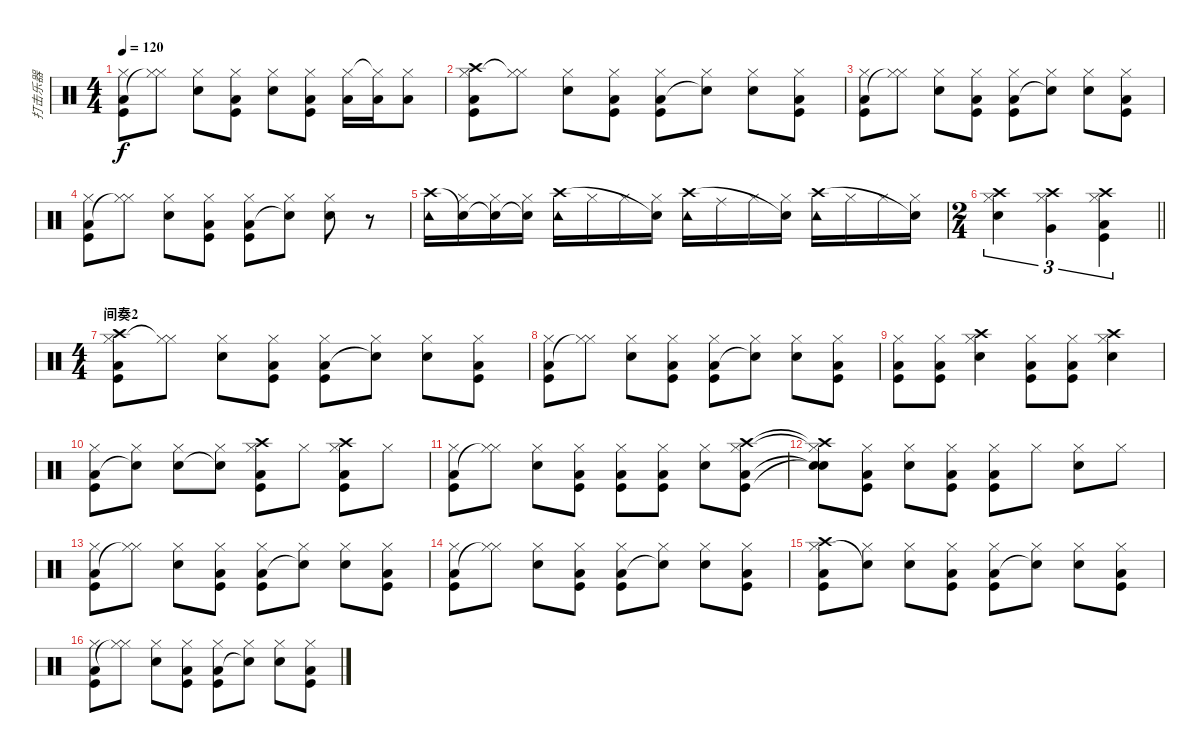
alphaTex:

\track ("打击乐器" "打击乐器") {instrument percussion}
\staff {score}
\articulation defaults
\ts (4 4)
\tempo 120
\clef neutral
\ks c
("Hi-Hat (closed)" "Low Floor Tom (hit)" "Kick (hit)").8{dy f} ("Hi-Hat (closed)" "Hi-Hat (closed)"{t}).8 ("Hi-Hat (closed)" "Electric Snare (hit)").8 ("Hi-Hat (closed)" "Low Floor Tom (hit)" "Kick (hit)").8 ("Hi-Hat (closed)" "Electric Snare (hit)").8 ("Hi-Hat (closed)" "Low Floor Tom (hit)" "Kick (hit)").8 ("Hi-Hat (closed)" "Low Tom (hit)").16 ("Hi-Hat (closed)"{t} "Low Tom (hit)").16 ("Hi-Hat (closed)" "Low Tom (hit)").8 |
("Crash high (hit)" "Hi-Hat (closed)" "Low Floor Tom (hit)" "Kick (hit)").8 ("Hi-Hat (closed)" "Hi-Hat (closed)"{t}).8 ("Hi-Hat (closed)" "Electric Snare (hit)").8 ("Hi-Hat (closed)" "Low Floor Tom (hit)" "Kick (hit)").8 ("Hi-Hat (closed)" "Low Floor Tom (hit)" "Kick (hit)").8 ("Hi-Hat (closed)" "Snare (hit)"{t}).8 ("Hi-Hat (closed)" "Electric Snare (hit)").8 ("Hi-Hat (closed)" "Low Floor Tom (hit)" "Kick (hit)").8 |
("Hi-Hat (closed)" "Low Floor Tom (hit)" "Kick (hit)").8 ("Hi-Hat (closed)" "Hi-Hat (closed)"{t}).8 ("Hi-Hat (closed)" "Electric Snare (hit)").8 ("Hi-Hat (closed)" "Low Floor Tom (hit)" "Kick (hit)").8 ("Hi-Hat (closed)" "Low Floor Tom (hit)" "Kick (hit)").8 ("Hi-Hat (closed)" "Snare (hit)"{t}).8 ("Hi-Hat (closed)" "Electric Snare (hit)").8 ("Hi-Hat (closed)" "Low Floor Tom (hit)" "Kick (hit)").8 |
("Hi-Hat (closed)" "Low Floor Tom (hit)" "Kick (hit)").8 ("Hi-Hat (closed)" "Hi-Hat (closed)"{t}).8 ("Hi-Hat (closed)" "Electric Snare (hit)").8 ("Hi-Hat (closed)" "Low Floor Tom (hit)" "Kick (hit)").8 ("Hi-Hat (closed)" "Low Floor Tom (hit)" "Kick (hit)").8 ("Hi-Hat (closed)" "Snare (hit)"{t}).8 ("Hi-Hat (closed)" "Electric Snare (hit)").8 r.8 |
("Tambourine (hit)" "Crash high (hit)").16 ("Hi-Hat (closed)" "Snare (hit)"{t}).16 ("Hi-Hat (closed)" "Snare (hit)"{t}).16 ("Hi-Hat (closed)" "Snare (hit)"{t}).16 ("Tambourine (hit)" "Crash high (hit)").16 "Hi-Hat (closed)".16 "Hi-Hat (closed)".16 ("Hi-Hat (closed)" "Snare (hit)"{t}).16 ("Tambourine (hit)" "Crash high (hit)").16 "Ride (middle)".16 "Hi-Hat (closed)".16 ("Hi-Hat (closed)" "Snare (hit)"{t}).16 ("Tambourine (hit)" "Crash high (hit)").16 "Hi-Hat (closed)".16 "Hi-Hat (closed)".16 ("Hi-Hat (closed)" "Snare (hit)"{t}).16 |
\ts (2 4)
\barLineRight lightlight
("Crash high (hit)" "Hi-Hat (closed)" "Electric Snare (hit)").4{tu (3 2)} ("Crash high (hit)" "Hi-Hat (closed)" "Very Low Tom (hit)").4{tu (3 2)} ("Crash high (hit)" "Hi-Hat (closed)" "Low Floor Tom (hit)" "Kick (hit)").4{tu (3 2)} |
\ts (4 4)
\section ("" "间奏2")
("Crash high (hit)" "Hi-Hat (closed)" "Low Floor Tom (hit)" "Kick (hit)").8 ("Hi-Hat (closed)" "Hi-Hat (closed)"{t}).8 ("Hi-Hat (closed)" "Electric Snare (hit)").8 ("Hi-Hat (closed)" "Low Floor Tom (hit)" "Kick (hit)").8 ("Hi-Hat (closed)" "Low Floor Tom (hit)" "Kick (hit)").8 ("Hi-Hat (closed)" "Snare (hit)"{t}).8 ("Hi-Hat (closed)" "Electric Snare (hit)").8 ("Hi-Hat (closed)" "Low Floor Tom (hit)" "Kick (hit)").8 |
("Hi-Hat (closed)" "Low Floor Tom (hit)" "Kick (hit)").8 ("Hi-Hat (closed)" "Hi-Hat (closed)"{t}).8 ("Hi-Hat (closed)" "Electric Snare (hit)").8 ("Hi-Hat (closed)" "Low Floor Tom (hit)" "Kick (hit)").8 ("Hi-Hat (closed)" "Low Floor Tom (hit)" "Kick (hit)").8 ("Hi-Hat (closed)" "Snare (hit)"{t}).8 ("Hi-Hat (closed)" "Electric Snare (hit)").8 ("Hi-Hat (closed)" "Low Floor Tom (hit)" "Kick (hit)").8 |
("Hi-Hat (closed)" "Low Floor Tom (hit)" "Kick (hit)").8 ("Hi-Hat (closed)" "Low Floor Tom (hit)" "Kick (hit)").8 ("Crash high (hit)" "Hi-Hat (closed)" "Electric Snare (hit)").4 ("Hi-Hat (closed)" "Low Floor Tom (hit)" "Kick (hit)").8 ("Hi-Hat (closed)" "Low Floor Tom (hit)" "Kick (hit)").8 ("Crash high (hit)" "Hi-Hat (closed)" "Electric Snare (hit)").4 |
("Hi-Hat (closed)" "Low Floor Tom (hit)" "Kick (hit)").8 ("Hi-Hat (closed)" "Snare (hit)"{t}).8 ("Hi-Hat (closed)" "Electric Snare (hit)").8 ("Hi-Hat (closed)" "Snare (hit)"{t}).8 ("Crash high (hit)" "Hi-Hat (closed)" "Low Floor Tom (hit)" "Kick (hit)").8 "Hi-Hat (closed)".8 ("Crash high (hit)" "Hi-Hat (closed)" "Low Floor Tom (hit)" "Kick (hit)").8 "Hi-Hat (closed)".8 |
("Hi-Hat (closed)" "Low Floor Tom (hit)" "Kick (hit)").8 ("Hi-Hat (closed)" "Hi-Hat (closed)"{t}).8 ("Hi-Hat (closed)" "Electric Snare (hit)").8 ("Hi-Hat (closed)" "Low Floor Tom (hit)" "Kick (hit)").8 ("Hi-Hat (closed)" "Low Floor Tom (hit)" "Kick (hit)").8 ("Hi-Hat (closed)" "Low Floor Tom (hit)" "Kick (hit)").8 ("Hi-Hat (closed)" "Electric Snare (hit)").8 ("Crash high (hit)" "Hi-Hat (closed)" "Low Floor Tom (hit)" "Kick (hit)").8 |
("Crash high (hit)"{t} "Hi-Hat (closed)"{t} "Snare (hit)"{t} "Snare (hit)"{t}).8 ("Hi-Hat (closed)" "Low Floor Tom (hit)" "Kick (hit)").8 ("Hi-Hat (closed)" "Electric Snare (hit)").8 ("Hi-Hat (closed)" "Low Floor Tom (hit)" "Kick (hit)").8 ("Hi-Hat (closed)" "Low Floor Tom (hit)" "Kick (hit)").8 "Hi-Hat (closed)".8 ("Hi-Hat (closed)" "Electric Snare (hit)").8 "Hi-Hat (closed)".8 |
("Hi-Hat (closed)" "Low Floor Tom (hit)" "Kick (hit)").8 ("Hi-Hat (closed)" "Hi-Hat (closed)"{t}).8 ("Hi-Hat (closed)" "Electric Snare (hit)").8 ("Hi-Hat (closed)" "Low Floor Tom (hit)" "Kick (hit)").8 ("Hi-Hat (closed)" "Low Floor Tom (hit)" "Kick (hit)").8 ("Hi-Hat (closed)" "Snare (hit)"{t}).8 ("Hi-Hat (closed)" "Electric Snare (hit)").8 ("Hi-Hat (closed)" "Low Floor Tom (hit)" "Kick (hit)").8 |
("Hi-Hat (closed)" "Low Floor Tom (hit)" "Kick (hit)").8 ("Hi-Hat (closed)" "Hi-Hat (closed)"{t}).8 ("Hi-Hat (closed)" "Electric Snare (hit)").8 ("Hi-Hat (closed)" "Low Floor Tom (hit)" "Kick (hit)").8 ("Hi-Hat (closed)" "Low Floor Tom (hit)" "Kick (hit)").8 ("Hi-Hat (closed)" "Snare (hit)"{t}).8 ("Hi-Hat (closed)" "Electric Snare (hit)").8 ("Hi-Hat (closed)" "Low Floor Tom (hit)" "Kick (hit)").8 |
("Crash high (hit)" "Hi-Hat (closed)" "Low Floor Tom (hit)" "Kick (hit)").8 ("Hi-Hat (closed)" "Snare (hit)"{t}).8 ("Hi-Hat (closed)" "Electric Snare (hit)").8 ("Hi-Hat (closed)" "Low Floor Tom (hit)" "Kick (hit)").8 ("Hi-Hat (closed)" "Low Floor Tom (hit)" "Kick (hit)").8 ("Hi-Hat (closed)" "Snare (hit)"{t}).8 ("Hi-Hat (closed)" "Electric Snare (hit)").8 ("Hi-Hat (closed)" "Low Floor Tom (hit)" "Kick (hit)").8 |
("Hi-Hat (closed)" "Low Floor Tom (hit)" "Kick (hit)").8 ("Hi-Hat (closed)" "Hi-Hat (closed)"{t}).8 ("Hi-Hat (closed)" "Electric Snare (hit)").8 ("Hi-Hat (closed)" "Low Floor Tom (hit)" "Kick (hit)").8 ("Hi-Hat (closed)" "Low Floor Tom (hit)" "Kick (hit)").8 ("Hi-Hat (closed)" "Snare (hit)"{t}).8 ("Hi-Hat (closed)" "Electric Snare (hit)").8 ("Hi-Hat (closed)" "Low Floor Tom (hit)" "Kick (hit)").8
